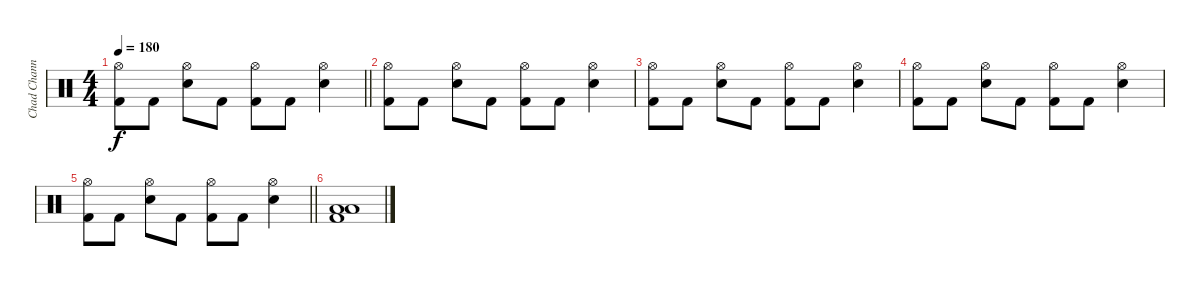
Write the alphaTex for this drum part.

\track ("Chad Channing" "Chad Chann") {instrument percussion}
\staff {score}
\articulation defaults
\ts (4 4)
\tempo 180
\clef neutral
\barLineRight lightlight
\ks c
("Hi-Hat (open)" "Kick (hit) 2").8{dy f} "Kick (hit) 2".8 ("Hi-Hat (open)" "Snare (hit) 2").8 "Kick (hit) 2".8 ("Hi-Hat (open)" "Kick (hit) 2").8 "Kick (hit) 2".8 ("Hi-Hat (open)" "Snare (hit) 2").4 |
("Hi-Hat (open)" "Kick (hit) 2").8 "Kick (hit) 2".8 ("Hi-Hat (open)" "Snare (hit) 2").8 "Kick (hit) 2".8 ("Hi-Hat (open)" "Kick (hit) 2").8 "Kick (hit) 2".8 ("Hi-Hat (open)" "Snare (hit) 2").4 |
("Hi-Hat (open)" "Kick (hit) 2").8 "Kick (hit) 2".8 ("Hi-Hat (open)" "Snare (hit) 2").8 "Kick (hit) 2".8 ("Hi-Hat (open)" "Kick (hit) 2").8 "Kick (hit) 2".8 ("Hi-Hat (open)" "Snare (hit) 2").4 |
("Hi-Hat (open)" "Kick (hit) 2").8 "Kick (hit) 2".8 ("Hi-Hat (open)" "Snare (hit) 2").8 "Kick (hit) 2".8 ("Hi-Hat (open)" "Kick (hit) 2").8 "Kick (hit) 2".8 ("Hi-Hat (open)" "Snare (hit) 2").4 |
\barLineRight lightlight
("Hi-Hat (open)" "Kick (hit) 2").8 "Kick (hit) 2".8 ("Hi-Hat (open)" "Snare (hit) 2").8 "Kick (hit) 2".8 ("Hi-Hat (open)" "Kick (hit) 2").8 "Kick (hit) 2".8 ("Hi-Hat (open)" "Snare (hit) 2").4 |
("Low Tom (hit)" "Low Floor Tom (hit)" "Kick (hit) 2").1
